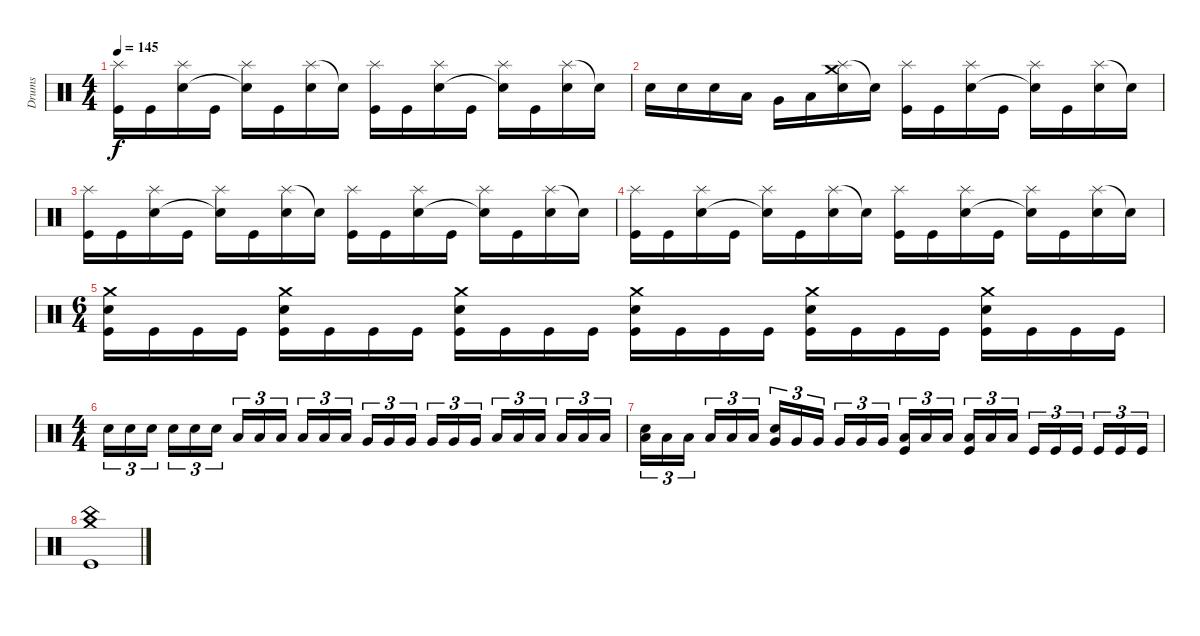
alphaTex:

\track ("Drums" "Drums") {instrument percussion}
\staff {score}
\articulation defaults
\ts (4 4)
\tempo 145
\clef neutral
\ks c
("Splash (hit)" "Kick (hit)").16{dy f} "Kick (hit)".16 ("Splash (hit)" "Electric Snare (hit)").16 "Kick (hit)".16 ("Splash (hit)" "Snare (hit)"{t}).16 "Kick (hit)".16 ("Splash (hit)" "Electric Snare (hit)").16 "Snare (hit)"{t}.16 ("Splash (hit)" "Kick (hit)").16 "Kick (hit)".16 ("Splash (hit)" "Electric Snare (hit)").16 "Kick (hit)".16 ("Splash (hit)" "Snare (hit)"{t}).16 "Kick (hit)".16 ("Splash (hit)" "Electric Snare (hit)").16 "Snare (hit)"{t}.16 |
"Electric Snare (hit)".16 "Electric Snare (hit)".16 "Electric Snare (hit)".16 "Low Tom (hit)".16 "Very Low Tom (hit)".16 "Low Floor Tom (hit)".16 ("Splash (hit)" "Crash medium (hit)" "Electric Snare (hit)").16 "Snare (hit)"{t}.16 ("Splash (hit)" "Kick (hit)").16 "Kick (hit)".16 ("Splash (hit)" "Electric Snare (hit)").16 "Kick (hit)".16 ("Splash (hit)" "Snare (hit)"{t}).16 "Kick (hit)".16 ("Splash (hit)" "Electric Snare (hit)").16 "Snare (hit)"{t}.16 |
("Splash (hit)" "Kick (hit)").16 "Kick (hit)".16 ("Splash (hit)" "Electric Snare (hit)").16 "Kick (hit)".16 ("Splash (hit)" "Snare (hit)"{t}).16 "Kick (hit)".16 ("Splash (hit)" "Electric Snare (hit)").16 "Snare (hit)"{t}.16 ("Splash (hit)" "Kick (hit)").16 "Kick (hit)".16 ("Splash (hit)" "Electric Snare (hit)").16 "Kick (hit)".16 ("Splash (hit)" "Snare (hit)"{t}).16 "Kick (hit)".16 ("Splash (hit)" "Electric Snare (hit)").16 "Snare (hit)"{t}.16 |
("Splash (hit)" "Kick (hit)").16 "Kick (hit)".16 ("Splash (hit)" "Electric Snare (hit)").16 "Kick (hit)".16 ("Splash (hit)" "Snare (hit)"{t}).16 "Kick (hit)".16 ("Splash (hit)" "Electric Snare (hit)").16 "Snare (hit)"{t}.16 ("Splash (hit)" "Kick (hit)").16 "Kick (hit)".16 ("Splash (hit)" "Electric Snare (hit)").16 "Kick (hit)".16 ("Splash (hit)" "Snare (hit)"{t}).16 "Kick (hit)".16 ("Splash (hit)" "Electric Snare (hit)").16 "Snare (hit)"{t}.16 |
\ts (6 4)
("Crash medium (hit)" "Electric Snare (hit)" "Kick (hit)").16 "Kick (hit)".16 "Kick (hit)".16 "Kick (hit)".16 ("Crash medium (hit)" "Electric Snare (hit)" "Kick (hit)").16 "Kick (hit)".16 "Kick (hit)".16 "Kick (hit)".16 ("Crash medium (hit)" "Electric Snare (hit)" "Kick (hit)").16 "Kick (hit)".16 "Kick (hit)".16 "Kick (hit)".16 ("Crash medium (hit)" "Electric Snare (hit)" "Kick (hit)").16 "Kick (hit)".16 "Kick (hit)".16 "Kick (hit)".16 ("Crash medium (hit)" "Electric Snare (hit)" "Kick (hit)").16 "Kick (hit)".16 "Kick (hit)".16 "Kick (hit)".16 ("Crash medium (hit)" "Electric Snare (hit)" "Kick (hit)").16 "Kick (hit)".16 "Kick (hit)".16 "Kick (hit)".16 |
\ts (4 4)
"Electric Snare (hit)".16{tu (3 2)} "Electric Snare (hit)".16{tu (3 2)} "Electric Snare (hit)".16{tu (3 2) beam splitsecondary} "Electric Snare (hit)".16{tu (3 2)} "Electric Snare (hit)".16{tu (3 2)} "Electric Snare (hit)".16{tu (3 2)} "Low Tom (hit)".16{tu (3 2)} "Low Tom (hit)".16{tu (3 2)} "Low Tom (hit)".16{tu (3 2) beam splitsecondary} "Low Tom (hit)".16{tu (3 2)} "Low Tom (hit)".16{tu (3 2)} "Low Tom (hit)".16{tu (3 2)} "Very Low Tom (hit)".16{tu (3 2)} "Very Low Tom (hit)".16{tu (3 2)} "Very Low Tom (hit)".16{tu (3 2) beam splitsecondary} "Very Low Tom (hit)".16{tu (3 2)} "Very Low Tom (hit)".16{tu (3 2)} "Very Low Tom (hit)".16{tu (3 2)} "Low Floor Tom (hit)".16{tu (3 2)} "Low Floor Tom (hit)".16{tu (3 2)} "Low Floor Tom (hit)".16{tu (3 2) beam splitsecondary} "Low Floor Tom (hit)".16{tu (3 2)} "Low Floor Tom (hit)".16{tu (3 2)} "Low Floor Tom (hit)".16{tu (3 2)} |
("Electric Snare (hit)" "Low Tom (hit)").16{tu (3 2)} "Low Tom (hit)".16{tu (3 2)} "Low Tom (hit)".16{tu (3 2) beam splitsecondary} "Low Tom (hit)".16{tu (3 2)} "Low Tom (hit)".16{tu (3 2)} "Low Tom (hit)".16{tu (3 2)} ("Electric Snare (hit)" "Very Low Tom (hit)").16{tu (3 2)} "Very Low Tom (hit)".16{tu (3 2)} "Very Low Tom (hit)".16{tu (3 2) beam splitsecondary} "Very Low Tom (hit)".16{tu (3 2)} "Very Low Tom (hit)".16{tu (3 2)} "Very Low Tom (hit)".16{tu (3 2)} ("Kick (hit)" "Low Floor Tom (hit)").16{tu (3 2)} "Low Floor Tom (hit)".16{tu (3 2)} "Low Floor Tom (hit)".16{tu (3 2) beam splitsecondary} ("Kick (hit)" "Low Floor Tom (hit)").16{tu (3 2)} "Low Floor Tom (hit)".16{tu (3 2)} "Low Floor Tom (hit)".16{tu (3 2)} "Kick (hit)".16{tu (3 2)} "Kick (hit)".16{tu (3 2)} "Kick (hit)".16{tu (3 2) beam splitsecondary} "Kick (hit)".16{tu (3 2)} "Kick (hit)".16{tu (3 2)} "Kick (hit)".16{tu (3 2)} |
("China (hit)" "Crash medium (hit)" "Kick (hit)").1
